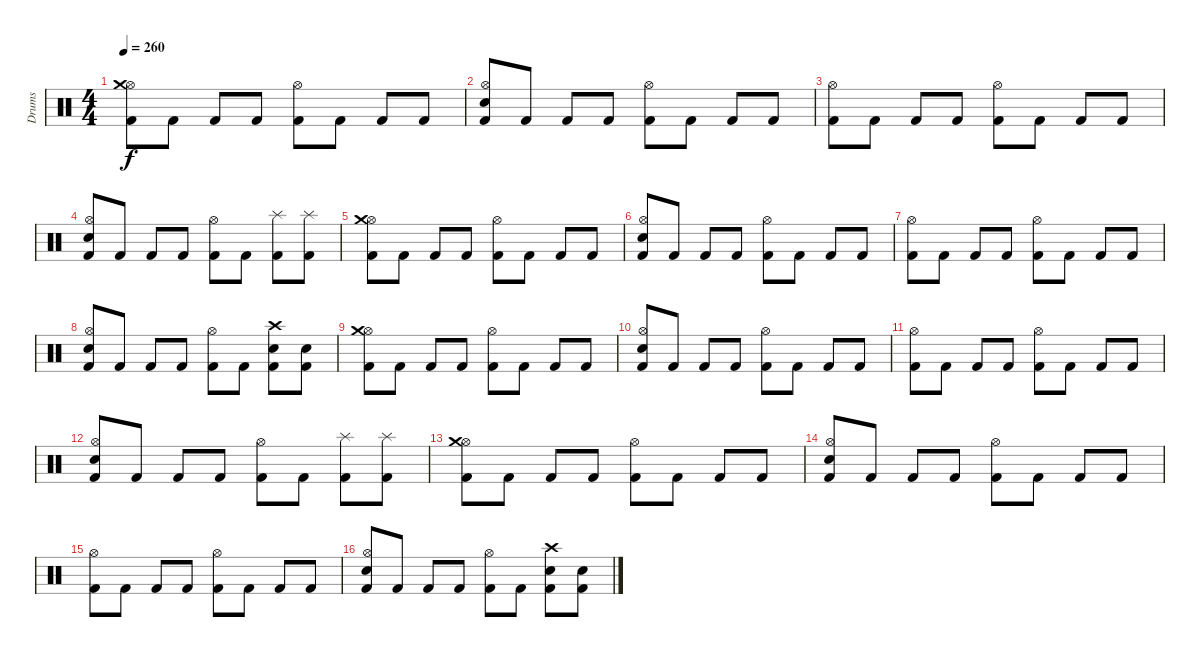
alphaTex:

\track ("Drums" "Drums") {instrument percussion}
\staff {score}
\articulation defaults
\ts (4 4)
\tempo 260
\clef neutral
\ks c
("Kick (hit) 2" "Hi-Hat (open)" "Crash medium (hit)").8{dy f} "Kick (hit) 2".8 "Kick (hit) 2".8 "Kick (hit) 2".8 ("Kick (hit) 2" "Hi-Hat (open)").8 "Kick (hit) 2".8 "Kick (hit) 2".8 "Kick (hit) 2".8 |
("Kick (hit) 2" "Electric Snare (hit)" "Hi-Hat (open)").8 "Kick (hit) 2".8 "Kick (hit) 2".8 "Kick (hit) 2".8 ("Kick (hit) 2" "Hi-Hat (open)").8 "Kick (hit) 2".8 "Kick (hit) 2".8 "Kick (hit) 2".8 |
("Kick (hit) 2" "Hi-Hat (open)").8 "Kick (hit) 2".8 "Kick (hit) 2".8 "Kick (hit) 2".8 ("Kick (hit) 2" "Hi-Hat (open)").8 "Kick (hit) 2".8 "Kick (hit) 2".8 "Kick (hit) 2".8 |
("Kick (hit) 2" "Electric Snare (hit)" "Hi-Hat (open)").8 "Kick (hit) 2".8 "Kick (hit) 2".8 "Kick (hit) 2".8 ("Kick (hit) 2" "Hi-Hat (open)").8 "Kick (hit) 2".8 ("Kick (hit) 2" "Splash (hit)").8 ("Kick (hit) 2" "Splash (hit)").8 |
("Kick (hit) 2" "Hi-Hat (open)" "Crash medium (hit)").8 "Kick (hit) 2".8 "Kick (hit) 2".8 "Kick (hit) 2".8 ("Kick (hit) 2" "Hi-Hat (open)").8 "Kick (hit) 2".8 "Kick (hit) 2".8 "Kick (hit) 2".8 |
("Kick (hit) 2" "Electric Snare (hit)" "Hi-Hat (open)").8 "Kick (hit) 2".8 "Kick (hit) 2".8 "Kick (hit) 2".8 ("Kick (hit) 2" "Hi-Hat (open)").8 "Kick (hit) 2".8 "Kick (hit) 2".8 "Kick (hit) 2".8 |
("Kick (hit) 2" "Hi-Hat (open)").8 "Kick (hit) 2".8 "Kick (hit) 2".8 "Kick (hit) 2".8 ("Kick (hit) 2" "Hi-Hat (open)").8 "Kick (hit) 2".8 "Kick (hit) 2".8 "Kick (hit) 2".8 |
("Kick (hit) 2" "Electric Snare (hit)" "Hi-Hat (open)").8 "Kick (hit) 2".8 "Kick (hit) 2".8 "Kick (hit) 2".8 ("Kick (hit) 2" "Hi-Hat (open)").8 "Kick (hit) 2".8 ("Kick (hit) 2" "Electric Snare (hit)" "Crash high (hit)").8 ("Kick (hit) 2" "Electric Snare (hit)").8 |
("Kick (hit) 2" "Hi-Hat (open)" "Crash medium (hit)").8 "Kick (hit) 2".8 "Kick (hit) 2".8 "Kick (hit) 2".8 ("Kick (hit) 2" "Hi-Hat (open)").8 "Kick (hit) 2".8 "Kick (hit) 2".8 "Kick (hit) 2".8 |
("Kick (hit) 2" "Electric Snare (hit)" "Hi-Hat (open)").8 "Kick (hit) 2".8 "Kick (hit) 2".8 "Kick (hit) 2".8 ("Kick (hit) 2" "Hi-Hat (open)").8 "Kick (hit) 2".8 "Kick (hit) 2".8 "Kick (hit) 2".8 |
("Kick (hit) 2" "Hi-Hat (open)").8 "Kick (hit) 2".8 "Kick (hit) 2".8 "Kick (hit) 2".8 ("Kick (hit) 2" "Hi-Hat (open)").8 "Kick (hit) 2".8 "Kick (hit) 2".8 "Kick (hit) 2".8 |
("Kick (hit) 2" "Electric Snare (hit)" "Hi-Hat (open)").8 "Kick (hit) 2".8 "Kick (hit) 2".8 "Kick (hit) 2".8 ("Kick (hit) 2" "Hi-Hat (open)").8 "Kick (hit) 2".8 ("Kick (hit) 2" "Splash (hit)").8 ("Kick (hit) 2" "Splash (hit)").8 |
("Kick (hit) 2" "Hi-Hat (open)" "Crash medium (hit)").8 "Kick (hit) 2".8 "Kick (hit) 2".8 "Kick (hit) 2".8 ("Kick (hit) 2" "Hi-Hat (open)").8 "Kick (hit) 2".8 "Kick (hit) 2".8 "Kick (hit) 2".8 |
("Kick (hit) 2" "Electric Snare (hit)" "Hi-Hat (open)").8 "Kick (hit) 2".8 "Kick (hit) 2".8 "Kick (hit) 2".8 ("Kick (hit) 2" "Hi-Hat (open)").8 "Kick (hit) 2".8 "Kick (hit) 2".8 "Kick (hit) 2".8 |
("Kick (hit) 2" "Hi-Hat (open)").8 "Kick (hit) 2".8 "Kick (hit) 2".8 "Kick (hit) 2".8 ("Kick (hit) 2" "Hi-Hat (open)").8 "Kick (hit) 2".8 "Kick (hit) 2".8 "Kick (hit) 2".8 |
("Kick (hit) 2" "Electric Snare (hit)" "Hi-Hat (open)").8 "Kick (hit) 2".8 "Kick (hit) 2".8 "Kick (hit) 2".8 ("Kick (hit) 2" "Hi-Hat (open)").8 "Kick (hit) 2".8 ("Kick (hit) 2" "Electric Snare (hit)" "Crash high (hit)").8 ("Kick (hit) 2" "Electric Snare (hit)").8
